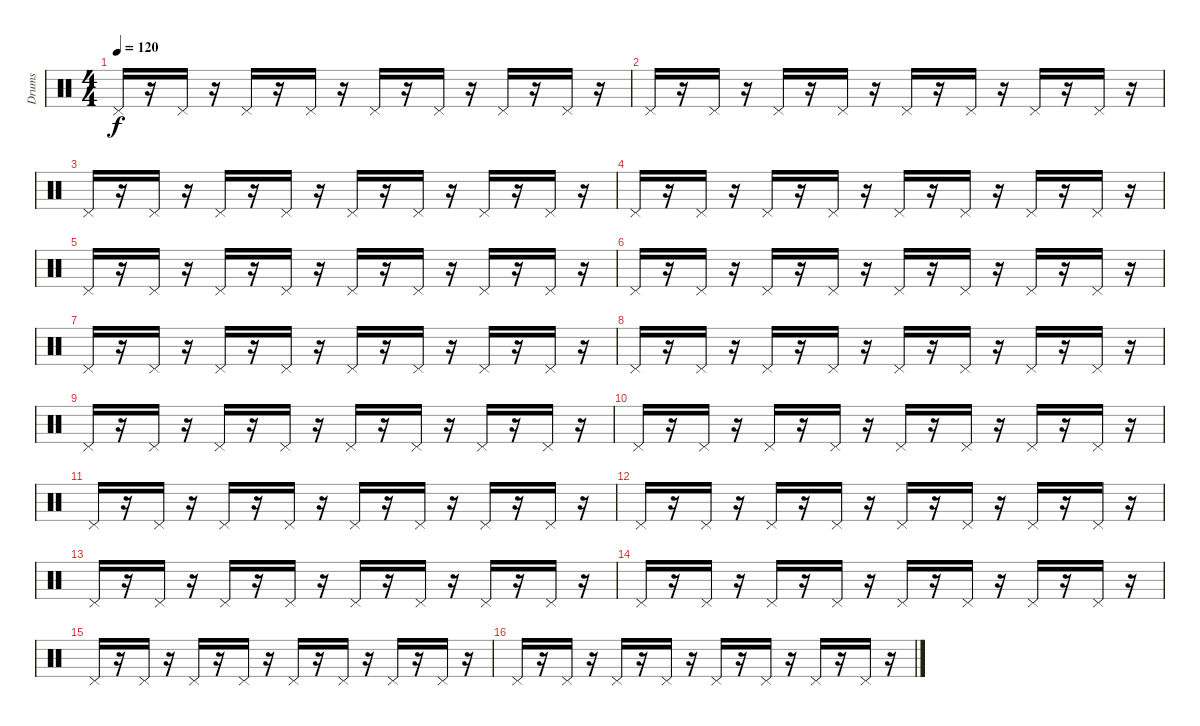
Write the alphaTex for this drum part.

\track ("Drums" "Drums") {instrument percussion}
\staff {score}
\articulation defaults
\ts (4 4)
\tempo 120
\clef neutral
\ks c "Pedal Hi-Hat (hit)".16{dy f}
r.16 "Pedal Hi-Hat (hit)".16 r.16 "Pedal Hi-Hat (hit)".16 r.16 "Pedal Hi-Hat (hit)".16 r.16 "Pedal Hi-Hat (hit)".16 r.16 "Pedal Hi-Hat (hit)".16 r.16 "Pedal Hi-Hat (hit)".16 r.16 "Pedal Hi-Hat (hit)".16 r.16 |
"Pedal Hi-Hat (hit)".16 r.16 "Pedal Hi-Hat (hit)".16 r.16 "Pedal Hi-Hat (hit)".16 r.16 "Pedal Hi-Hat (hit)".16 r.16 "Pedal Hi-Hat (hit)".16 r.16 "Pedal Hi-Hat (hit)".16 r.16 "Pedal Hi-Hat (hit)".16 r.16 "Pedal Hi-Hat (hit)".16 r.16 |
"Pedal Hi-Hat (hit)".16 r.16 "Pedal Hi-Hat (hit)".16 r.16 "Pedal Hi-Hat (hit)".16 r.16 "Pedal Hi-Hat (hit)".16 r.16 "Pedal Hi-Hat (hit)".16 r.16 "Pedal Hi-Hat (hit)".16 r.16 "Pedal Hi-Hat (hit)".16 r.16 "Pedal Hi-Hat (hit)".16 r.16 |
"Pedal Hi-Hat (hit)".16 r.16 "Pedal Hi-Hat (hit)".16 r.16 "Pedal Hi-Hat (hit)".16 r.16 "Pedal Hi-Hat (hit)".16 r.16 "Pedal Hi-Hat (hit)".16 r.16 "Pedal Hi-Hat (hit)".16 r.16 "Pedal Hi-Hat (hit)".16 r.16 "Pedal Hi-Hat (hit)".16 r.16 |
"Pedal Hi-Hat (hit)".16 r.16 "Pedal Hi-Hat (hit)".16 r.16 "Pedal Hi-Hat (hit)".16 r.16 "Pedal Hi-Hat (hit)".16 r.16 "Pedal Hi-Hat (hit)".16 r.16 "Pedal Hi-Hat (hit)".16 r.16 "Pedal Hi-Hat (hit)".16 r.16 "Pedal Hi-Hat (hit)".16 r.16 |
"Pedal Hi-Hat (hit)".16 r.16 "Pedal Hi-Hat (hit)".16 r.16 "Pedal Hi-Hat (hit)".16 r.16 "Pedal Hi-Hat (hit)".16 r.16 "Pedal Hi-Hat (hit)".16 r.16 "Pedal Hi-Hat (hit)".16 r.16 "Pedal Hi-Hat (hit)".16 r.16 "Pedal Hi-Hat (hit)".16 r.16 |
"Pedal Hi-Hat (hit)".16 r.16 "Pedal Hi-Hat (hit)".16 r.16 "Pedal Hi-Hat (hit)".16 r.16 "Pedal Hi-Hat (hit)".16 r.16 "Pedal Hi-Hat (hit)".16 r.16 "Pedal Hi-Hat (hit)".16 r.16 "Pedal Hi-Hat (hit)".16 r.16 "Pedal Hi-Hat (hit)".16 r.16 |
"Pedal Hi-Hat (hit)".16 r.16 "Pedal Hi-Hat (hit)".16 r.16 "Pedal Hi-Hat (hit)".16 r.16 "Pedal Hi-Hat (hit)".16 r.16 "Pedal Hi-Hat (hit)".16 r.16 "Pedal Hi-Hat (hit)".16 r.16 "Pedal Hi-Hat (hit)".16 r.16 "Pedal Hi-Hat (hit)".16 r.16 |
"Pedal Hi-Hat (hit)".16 r.16 "Pedal Hi-Hat (hit)".16 r.16 "Pedal Hi-Hat (hit)".16 r.16 "Pedal Hi-Hat (hit)".16 r.16 "Pedal Hi-Hat (hit)".16 r.16 "Pedal Hi-Hat (hit)".16 r.16 "Pedal Hi-Hat (hit)".16 r.16 "Pedal Hi-Hat (hit)".16 r.16 |
"Pedal Hi-Hat (hit)".16 r.16 "Pedal Hi-Hat (hit)".16 r.16 "Pedal Hi-Hat (hit)".16 r.16 "Pedal Hi-Hat (hit)".16 r.16 "Pedal Hi-Hat (hit)".16 r.16 "Pedal Hi-Hat (hit)".16 r.16 "Pedal Hi-Hat (hit)".16 r.16 "Pedal Hi-Hat (hit)".16 r.16 |
"Pedal Hi-Hat (hit)".16 r.16 "Pedal Hi-Hat (hit)".16 r.16 "Pedal Hi-Hat (hit)".16 r.16 "Pedal Hi-Hat (hit)".16 r.16 "Pedal Hi-Hat (hit)".16 r.16 "Pedal Hi-Hat (hit)".16 r.16 "Pedal Hi-Hat (hit)".16 r.16 "Pedal Hi-Hat (hit)".16 r.16 |
"Pedal Hi-Hat (hit)".16 r.16 "Pedal Hi-Hat (hit)".16 r.16 "Pedal Hi-Hat (hit)".16 r.16 "Pedal Hi-Hat (hit)".16 r.16 "Pedal Hi-Hat (hit)".16 r.16 "Pedal Hi-Hat (hit)".16 r.16 "Pedal Hi-Hat (hit)".16 r.16 "Pedal Hi-Hat (hit)".16 r.16 |
"Pedal Hi-Hat (hit)".16 r.16 "Pedal Hi-Hat (hit)".16 r.16 "Pedal Hi-Hat (hit)".16 r.16 "Pedal Hi-Hat (hit)".16 r.16 "Pedal Hi-Hat (hit)".16 r.16 "Pedal Hi-Hat (hit)".16 r.16 "Pedal Hi-Hat (hit)".16 r.16 "Pedal Hi-Hat (hit)".16 r.16 |
"Pedal Hi-Hat (hit)".16 r.16 "Pedal Hi-Hat (hit)".16 r.16 "Pedal Hi-Hat (hit)".16 r.16 "Pedal Hi-Hat (hit)".16 r.16 "Pedal Hi-Hat (hit)".16 r.16 "Pedal Hi-Hat (hit)".16 r.16 "Pedal Hi-Hat (hit)".16 r.16 "Pedal Hi-Hat (hit)".16 r.16 |
"Pedal Hi-Hat (hit)".16 r.16 "Pedal Hi-Hat (hit)".16 r.16 "Pedal Hi-Hat (hit)".16 r.16 "Pedal Hi-Hat (hit)".16 r.16 "Pedal Hi-Hat (hit)".16 r.16 "Pedal Hi-Hat (hit)".16 r.16 "Pedal Hi-Hat (hit)".16 r.16 "Pedal Hi-Hat (hit)".16 r.16 |
"Pedal Hi-Hat (hit)".16 r.16 "Pedal Hi-Hat (hit)".16 r.16 "Pedal Hi-Hat (hit)".16 r.16 "Pedal Hi-Hat (hit)".16 r.16 "Pedal Hi-Hat (hit)".16 r.16 "Pedal Hi-Hat (hit)".16 r.16 "Pedal Hi-Hat (hit)".16 r.16 "Pedal Hi-Hat (hit)".16 r.16
